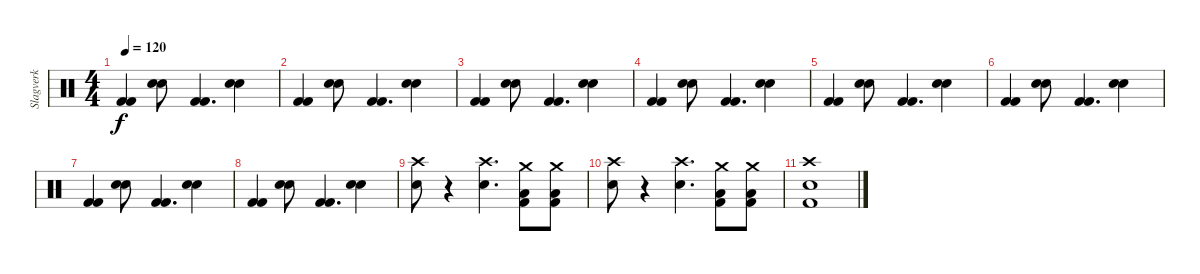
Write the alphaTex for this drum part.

\track ("Slagverk" "Slagverk") {instrument percussion}
\staff {score}
\articulation defaults
\ts (4 4)
\tempo 120
\clef neutral
\ks c
("Kick (hit) 2" "Kick (hit) 2").4{dy f} ("Snare (hit) 2" "Snare (hit) 2").8 ("Kick (hit) 2" "Kick (hit) 2").4{d} ("Snare (hit) 2" "Snare (hit) 2").4 |
("Kick (hit) 2" "Kick (hit) 2").4 ("Snare (hit) 2" "Snare (hit) 2").8 ("Kick (hit) 2" "Kick (hit) 2").4{d} ("Snare (hit) 2" "Snare (hit) 2").4 |
("Kick (hit) 2" "Kick (hit) 2").4 ("Snare (hit) 2" "Snare (hit) 2").8 ("Kick (hit) 2" "Kick (hit) 2").4{d} ("Snare (hit) 2" "Snare (hit) 2").4 |
("Kick (hit) 2" "Kick (hit) 2").4 ("Snare (hit) 2" "Snare (hit) 2").8 ("Kick (hit) 2" "Kick (hit) 2").4{d} ("Snare (hit) 2" "Snare (hit) 2").4 |
("Kick (hit) 2" "Kick (hit) 2").4 ("Snare (hit) 2" "Snare (hit) 2").8 ("Kick (hit) 2" "Kick (hit) 2").4{d} ("Snare (hit) 2" "Snare (hit) 2").4 |
("Kick (hit) 2" "Kick (hit) 2").4 ("Snare (hit) 2" "Snare (hit) 2").8 ("Kick (hit) 2" "Kick (hit) 2").4{d} ("Snare (hit) 2" "Snare (hit) 2").4 |
("Kick (hit) 2" "Kick (hit) 2").4 ("Snare (hit) 2" "Snare (hit) 2").8 ("Kick (hit) 2" "Kick (hit) 2").4{d} ("Snare (hit) 2" "Snare (hit) 2").4 |
("Kick (hit) 2" "Kick (hit) 2").4 ("Snare (hit) 2" "Snare (hit) 2").8 ("Kick (hit) 2" "Kick (hit) 2").4{d} ("Snare (hit) 2" "Snare (hit) 2").4 |
("Crash high (hit)" "Snare (hit) 2").8 r.4 ("Crash high (hit)" "Snare (hit) 2").4{d} ("Low Tom (hit)" "Kick (hit) 2" "Crash medium (hit)").8 ("Low Tom (hit)" "Kick (hit) 2" "Crash medium (hit)").8 |
("Crash high (hit)" "Snare (hit) 2").8 r.4 ("Crash high (hit)" "Snare (hit) 2").4{d} ("Low Tom (hit)" "Kick (hit) 2" "Crash medium (hit)").8 ("Low Tom (hit)" "Kick (hit) 2" "Crash medium (hit)").8 |
("Kick (hit) 2" "Snare (hit) 2" "Crash high (hit)").1
